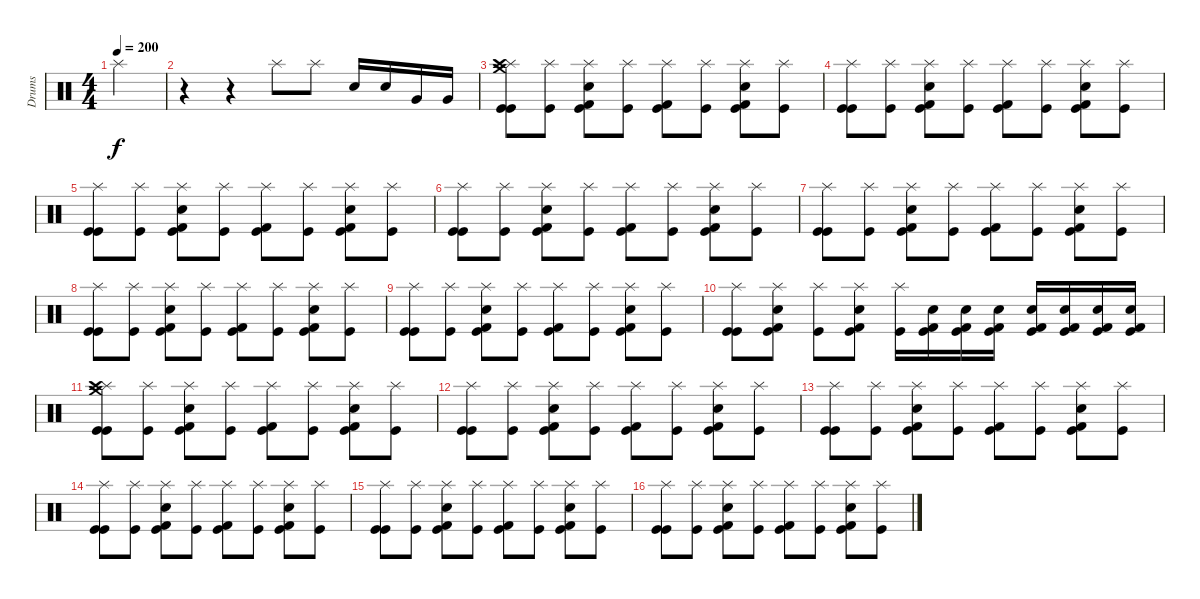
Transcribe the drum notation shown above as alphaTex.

\track ("Drums" "Drums") {instrument percussion}
\staff {score}
\articulation defaults
\ts (4 4)
\tempo 200
\clef neutral
\ks c "Splash (hit)".4{dy f}
|
r.4 r.4 "Splash (hit)".8 "Splash (hit)".8 "Snare (hit) 2".16 "Snare (hit) 2".16 "Very Low Tom (hit)".16 "Very Low Tom (hit)".16 |
("Splash (hit)" "Crash high (hit)" "Crash medium (hit)" "Kick (hit)" "Kick (hit)").8 ("Splash (hit)" "Kick (hit)").8 ("Splash (hit)" "Snare (hit) 2" "Kick (hit) 2" "Kick (hit)").8 ("Splash (hit)" "Kick (hit)").8 ("Splash (hit)" "Kick (hit) 2" "Kick (hit)").8 ("Splash (hit)" "Kick (hit)").8 ("Splash (hit)" "Snare (hit) 2" "Kick (hit) 2" "Kick (hit)").8 ("Splash (hit)" "Kick (hit)").8 |
("Splash (hit)" "Kick (hit)" "Kick (hit)").8 ("Splash (hit)" "Kick (hit)").8 ("Splash (hit)" "Snare (hit) 2" "Kick (hit) 2" "Kick (hit)").8 ("Splash (hit)" "Kick (hit)").8 ("Splash (hit)" "Kick (hit) 2" "Kick (hit)").8 ("Splash (hit)" "Kick (hit)").8 ("Splash (hit)" "Snare (hit) 2" "Kick (hit) 2" "Kick (hit)").8 ("Splash (hit)" "Kick (hit)").8 |
("Splash (hit)" "Kick (hit)" "Kick (hit)").8 ("Splash (hit)" "Kick (hit)").8 ("Splash (hit)" "Snare (hit) 2" "Kick (hit) 2" "Kick (hit)").8 ("Splash (hit)" "Kick (hit)").8 ("Splash (hit)" "Kick (hit) 2" "Kick (hit)").8 ("Splash (hit)" "Kick (hit)").8 ("Splash (hit)" "Snare (hit) 2" "Kick (hit) 2" "Kick (hit)").8 ("Splash (hit)" "Kick (hit)").8 |
("Splash (hit)" "Kick (hit)" "Kick (hit)").8 ("Splash (hit)" "Kick (hit)").8 ("Splash (hit)" "Snare (hit) 2" "Kick (hit) 2" "Kick (hit)").8 ("Splash (hit)" "Kick (hit)").8 ("Splash (hit)" "Kick (hit) 2" "Kick (hit)").8 ("Splash (hit)" "Kick (hit)").8 ("Splash (hit)" "Snare (hit) 2" "Kick (hit) 2" "Kick (hit)").8 ("Splash (hit)" "Kick (hit)").8 |
("Splash (hit)" "Kick (hit)" "Kick (hit)").8 ("Splash (hit)" "Kick (hit)").8 ("Splash (hit)" "Snare (hit) 2" "Kick (hit) 2" "Kick (hit)").8 ("Splash (hit)" "Kick (hit)").8 ("Splash (hit)" "Kick (hit) 2" "Kick (hit)").8 ("Splash (hit)" "Kick (hit)").8 ("Splash (hit)" "Snare (hit) 2" "Kick (hit) 2" "Kick (hit)").8 ("Splash (hit)" "Kick (hit)").8 |
("Splash (hit)" "Kick (hit)" "Kick (hit)").8 ("Splash (hit)" "Kick (hit)").8 ("Splash (hit)" "Snare (hit) 2" "Kick (hit) 2" "Kick (hit)").8 ("Splash (hit)" "Kick (hit)").8 ("Splash (hit)" "Kick (hit) 2" "Kick (hit)").8 ("Splash (hit)" "Kick (hit)").8 ("Splash (hit)" "Snare (hit) 2" "Kick (hit) 2" "Kick (hit)").8 ("Splash (hit)" "Kick (hit)").8 |
("Splash (hit)" "Kick (hit)" "Kick (hit)").8 ("Splash (hit)" "Kick (hit)").8 ("Splash (hit)" "Snare (hit) 2" "Kick (hit) 2" "Kick (hit)").8 ("Splash (hit)" "Kick (hit)").8 ("Splash (hit)" "Kick (hit) 2" "Kick (hit)").8 ("Splash (hit)" "Kick (hit)").8 ("Splash (hit)" "Snare (hit) 2" "Kick (hit) 2" "Kick (hit)").8 ("Splash (hit)" "Kick (hit)").8 |
("Splash (hit)" "Kick (hit)" "Kick (hit)").8 ("Splash (hit)" "Snare (hit) 2" "Kick (hit) 2" "Kick (hit)").8 ("Splash (hit)" "Kick (hit)").8 ("Splash (hit)" "Snare (hit) 2" "Kick (hit) 2" "Kick (hit)").8 ("Splash (hit)" "Kick (hit)").16 ("Snare (hit) 2" "Kick (hit) 2" "Kick (hit)").16 ("Snare (hit) 2" "Kick (hit) 2" "Kick (hit)").16 ("Snare (hit) 2" "Kick (hit) 2" "Kick (hit)").16 ("Snare (hit) 2" "Kick (hit) 2" "Kick (hit)").16 ("Snare (hit) 2" "Kick (hit) 2" "Kick (hit)").16 ("Snare (hit) 2" "Kick (hit) 2" "Kick (hit)").16 ("Snare (hit) 2" "Kick (hit) 2" "Kick (hit)").16 |
("Splash (hit)" "Crash medium (hit)" "Crash high (hit)" "Kick (hit)" "Kick (hit)").8 ("Splash (hit)" "Kick (hit)").8 ("Splash (hit)" "Snare (hit) 2" "Kick (hit) 2" "Kick (hit)").8 ("Splash (hit)" "Kick (hit)").8 ("Splash (hit)" "Kick (hit) 2" "Kick (hit)").8 ("Splash (hit)" "Kick (hit)").8 ("Splash (hit)" "Snare (hit) 2" "Kick (hit) 2" "Kick (hit)").8 ("Splash (hit)" "Kick (hit)").8 |
("Splash (hit)" "Kick (hit)" "Kick (hit)").8 ("Splash (hit)" "Kick (hit)").8 ("Splash (hit)" "Snare (hit) 2" "Kick (hit) 2" "Kick (hit)").8 ("Splash (hit)" "Kick (hit)").8 ("Splash (hit)" "Kick (hit) 2" "Kick (hit)").8 ("Splash (hit)" "Kick (hit)").8 ("Splash (hit)" "Snare (hit) 2" "Kick (hit) 2" "Kick (hit)").8 ("Splash (hit)" "Kick (hit)").8 |
("Splash (hit)" "Kick (hit)" "Kick (hit)").8 ("Splash (hit)" "Kick (hit)").8 ("Splash (hit)" "Snare (hit) 2" "Kick (hit) 2" "Kick (hit)").8 ("Splash (hit)" "Kick (hit)").8 ("Splash (hit)" "Kick (hit) 2" "Kick (hit)").8 ("Splash (hit)" "Kick (hit)").8 ("Splash (hit)" "Snare (hit) 2" "Kick (hit) 2" "Kick (hit)").8 ("Splash (hit)" "Kick (hit)").8 |
("Splash (hit)" "Kick (hit)" "Kick (hit)").8 ("Splash (hit)" "Kick (hit)").8 ("Splash (hit)" "Snare (hit) 2" "Kick (hit) 2" "Kick (hit)").8 ("Splash (hit)" "Kick (hit)").8 ("Splash (hit)" "Kick (hit) 2" "Kick (hit)").8 ("Splash (hit)" "Kick (hit)").8 ("Splash (hit)" "Snare (hit) 2" "Kick (hit) 2" "Kick (hit)").8 ("Splash (hit)" "Kick (hit)").8 |
("Splash (hit)" "Kick (hit)" "Kick (hit)").8 ("Splash (hit)" "Kick (hit)").8 ("Splash (hit)" "Snare (hit) 2" "Kick (hit) 2" "Kick (hit)").8 ("Splash (hit)" "Kick (hit)").8 ("Splash (hit)" "Kick (hit) 2" "Kick (hit)").8 ("Splash (hit)" "Kick (hit)").8 ("Splash (hit)" "Snare (hit) 2" "Kick (hit) 2" "Kick (hit)").8 ("Splash (hit)" "Kick (hit)").8 |
("Splash (hit)" "Kick (hit)" "Kick (hit)").8 ("Splash (hit)" "Kick (hit)").8 ("Splash (hit)" "Snare (hit) 2" "Kick (hit) 2" "Kick (hit)").8 ("Splash (hit)" "Kick (hit)").8 ("Splash (hit)" "Kick (hit) 2" "Kick (hit)").8 ("Splash (hit)" "Kick (hit)").8 ("Splash (hit)" "Snare (hit) 2" "Kick (hit) 2" "Kick (hit)").8 ("Splash (hit)" "Kick (hit)").8
